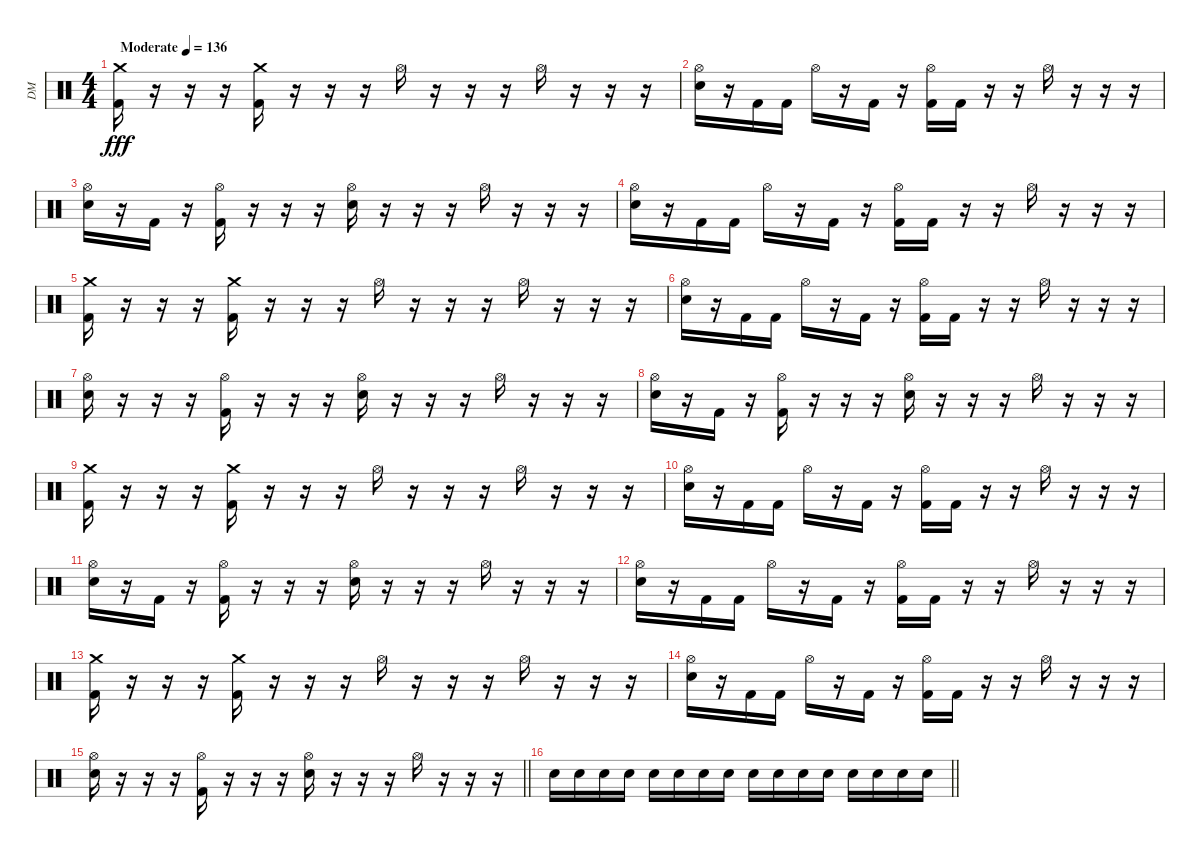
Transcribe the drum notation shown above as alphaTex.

\track ("DM" "DM") {instrument percussion}
\staff {score}
\articulation defaults
\ts (4 4)
\section ("" "")
\tempo (136 "Moderate")
\clef neutral
\ks c
("Crash medium (hit)" "Kick (hit) 2").16{dy fff} r.16 r.16 r.16 ("Crash medium (hit)" "Kick (hit) 2").16 r.16 r.16 r.16 "Hi-Hat (open)".16 r.16 r.16 r.16 "Hi-Hat (open)".16 r.16 r.16 r.16 |
("Hi-Hat (open)" "Electric Snare (hit)").16 r.16 "Kick (hit) 2".16 "Kick (hit) 2".16 "Hi-Hat (open)".16 r.16 "Kick (hit) 2".16 r.16 ("Hi-Hat (open)" "Kick (hit) 2").16 "Kick (hit) 2".16 r.16 r.16 "Hi-Hat (open)".16 r.16 r.16 r.16 |
("Hi-Hat (open)" "Electric Snare (hit)").16 r.16 "Kick (hit) 2".16 r.16 ("Hi-Hat (open)" "Kick (hit) 2").16 r.16 r.16 r.16 ("Hi-Hat (open)" "Electric Snare (hit)").16 r.16 r.16 r.16 "Hi-Hat (open)".16 r.16 r.16 r.16 |
("Hi-Hat (open)" "Electric Snare (hit)").16 r.16 "Kick (hit) 2".16 "Kick (hit) 2".16 "Hi-Hat (open)".16 r.16 "Kick (hit) 2".16 r.16 ("Hi-Hat (open)" "Kick (hit) 2").16 "Kick (hit) 2".16 r.16 r.16 "Hi-Hat (open)".16 r.16 r.16 r.16 |
("Crash medium (hit)" "Kick (hit) 2").16 r.16 r.16 r.16 ("Crash medium (hit)" "Kick (hit) 2").16 r.16 r.16 r.16 "Hi-Hat (open)".16 r.16 r.16 r.16 "Hi-Hat (open)".16 r.16 r.16 r.16 |
("Hi-Hat (open)" "Electric Snare (hit)").16 r.16 "Kick (hit) 2".16 "Kick (hit) 2".16 "Hi-Hat (open)".16 r.16 "Kick (hit) 2".16 r.16 ("Hi-Hat (open)" "Kick (hit) 2").16 "Kick (hit) 2".16 r.16 r.16 "Hi-Hat (open)".16 r.16 r.16 r.16 |
("Hi-Hat (open)" "Electric Snare (hit)").16 r.16 r.16 r.16 ("Hi-Hat (open)" "Kick (hit) 2").16 r.16 r.16 r.16 ("Hi-Hat (open)" "Electric Snare (hit)").16 r.16 r.16 r.16 "Hi-Hat (open)".16 r.16 r.16 r.16 |
("Hi-Hat (open)" "Electric Snare (hit)").16 r.16 "Kick (hit) 2".16 r.16 ("Hi-Hat (open)" "Kick (hit) 2").16 r.16 r.16 r.16 ("Hi-Hat (open)" "Electric Snare (hit)").16 r.16 r.16 r.16 "Hi-Hat (open)".16 r.16 r.16 r.16 |
("Crash medium (hit)" "Kick (hit) 2").16 r.16 r.16 r.16 ("Crash medium (hit)" "Kick (hit) 2").16 r.16 r.16 r.16 "Hi-Hat (open)".16 r.16 r.16 r.16 "Hi-Hat (open)".16 r.16 r.16 r.16 |
("Hi-Hat (open)" "Electric Snare (hit)").16 r.16 "Kick (hit) 2".16 "Kick (hit) 2".16 "Hi-Hat (open)".16 r.16 "Kick (hit) 2".16 r.16 ("Hi-Hat (open)" "Kick (hit) 2").16 "Kick (hit) 2".16 r.16 r.16 "Hi-Hat (open)".16 r.16 r.16 r.16 |
("Hi-Hat (open)" "Electric Snare (hit)").16 r.16 "Kick (hit) 2".16 r.16 ("Hi-Hat (open)" "Kick (hit) 2").16 r.16 r.16 r.16 ("Hi-Hat (open)" "Electric Snare (hit)").16 r.16 r.16 r.16 "Hi-Hat (open)".16 r.16 r.16 r.16 |
("Hi-Hat (open)" "Electric Snare (hit)").16 r.16 "Kick (hit) 2".16 "Kick (hit) 2".16 "Hi-Hat (open)".16 r.16 "Kick (hit) 2".16 r.16 ("Hi-Hat (open)" "Kick (hit) 2").16 "Kick (hit) 2".16 r.16 r.16 "Hi-Hat (open)".16 r.16 r.16 r.16 |
("Crash medium (hit)" "Kick (hit) 2").16 r.16 r.16 r.16 ("Crash medium (hit)" "Kick (hit) 2").16 r.16 r.16 r.16 "Hi-Hat (open)".16 r.16 r.16 r.16 "Hi-Hat (open)".16 r.16 r.16 r.16 |
("Hi-Hat (open)" "Electric Snare (hit)").16 r.16 "Kick (hit) 2".16 "Kick (hit) 2".16 "Hi-Hat (open)".16 r.16 "Kick (hit) 2".16 r.16 ("Hi-Hat (open)" "Kick (hit) 2").16 "Kick (hit) 2".16 r.16 r.16 "Hi-Hat (open)".16 r.16 r.16 r.16 |
\barLineRight lightlight
("Hi-Hat (open)" "Electric Snare (hit)").16 r.16 r.16 r.16 ("Hi-Hat (open)" "Kick (hit) 2").16 r.16 r.16 r.16 ("Hi-Hat (open)" "Electric Snare (hit)").16 r.16 r.16 r.16 "Hi-Hat (open)".16 r.16 r.16 r.16 |
\section ("" "")
\barLineRight lightlight "Electric Snare (hit)".16 "Electric Snare (hit)".16 "Electric Snare (hit)".16 "Electric Snare (hit)".16 "Electric Snare (hit)".16 "Electric Snare (hit)".16 "Electric Snare (hit)".16 "Electric Snare (hit)".16 "Electric Snare (hit)".16 "Electric Snare (hit)".16 "Electric Snare (hit)".16 "Electric Snare (hit)".16 "Electric Snare (hit)".16 "Electric Snare (hit)".16 "Electric Snare (hit)".16 "Electric Snare (hit)".16
